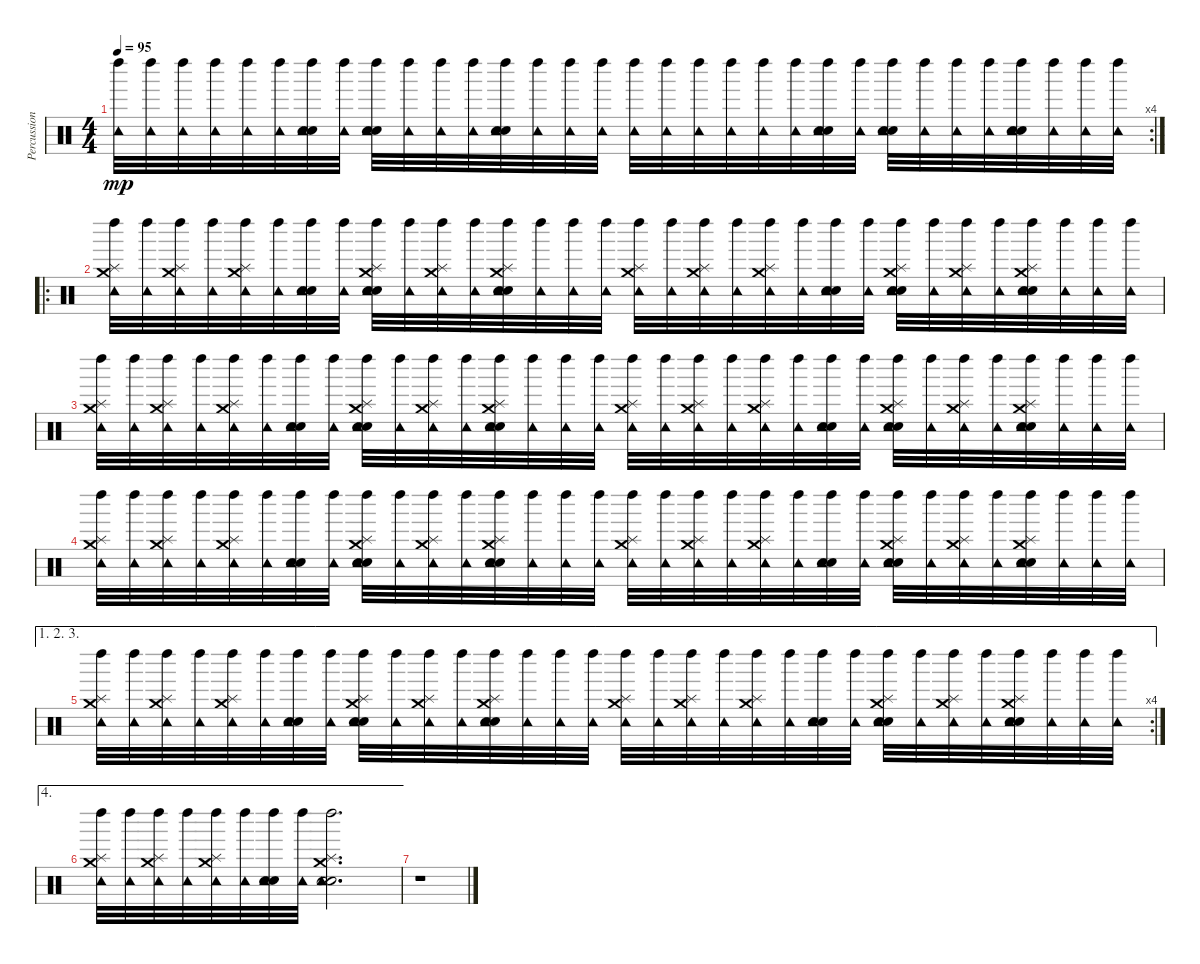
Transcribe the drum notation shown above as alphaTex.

\track ("Percussions" "Percussion") {instrument percussion}
\staff {score}
\articulation defaults
\rc 4
\ts (4 4)
\tempo 95
\clef neutral
\ks c
("Tambourine (hit)" "Left Maraca (hit)").32{dy mp} ("Tambourine (hit)" "Left Maraca (hit)").32 ("Tambourine (hit)" "Left Maraca (hit)").32 ("Tambourine (hit)" "Left Maraca (hit)").32 ("Tambourine (hit)" "Left Maraca (hit)").32 ("Tambourine (hit)" "Left Maraca (hit)").32 ("Snare (hit) 2" "Snare (hit) 2" "Tambourine (hit)" "Left Maraca (hit)").32 ("Tambourine (hit)" "Left Maraca (hit)").32 ("Snare (hit) 2" "Snare (hit) 2" "Tambourine (hit)" "Left Maraca (hit)").32 ("Tambourine (hit)" "Left Maraca (hit)").32 ("Tambourine (hit)" "Left Maraca (hit)").32 ("Tambourine (hit)" "Left Maraca (hit)").32 ("Snare (hit) 2" "Snare (hit) 2" "Tambourine (hit)" "Left Maraca (hit)").32 ("Tambourine (hit)" "Left Maraca (hit)").32 ("Tambourine (hit)" "Left Maraca (hit)").32 ("Tambourine (hit)" "Left Maraca (hit)").32 ("Tambourine (hit)" "Left Maraca (hit)").32 ("Tambourine (hit)" "Left Maraca (hit)").32 ("Tambourine (hit)" "Left Maraca (hit)").32 ("Tambourine (hit)" "Left Maraca (hit)").32 ("Tambourine (hit)" "Left Maraca (hit)").32 ("Tambourine (hit)" "Left Maraca (hit)").32 ("Snare (hit) 2" "Snare (hit) 2" "Tambourine (hit)" "Left Maraca (hit)").32 ("Tambourine (hit)" "Left Maraca (hit)").32 ("Snare (hit) 2" "Snare (hit) 2" "Tambourine (hit)" "Left Maraca (hit)").32 ("Tambourine (hit)" "Left Maraca (hit)").32 ("Tambourine (hit)" "Left Maraca (hit)").32 ("Tambourine (hit)" "Left Maraca (hit)").32 ("Snare (hit) 2" "Snare (hit) 2" "Tambourine (hit)" "Left Maraca (hit)").32 ("Tambourine (hit)" "Left Maraca (hit)").32 ("Tambourine (hit)" "Left Maraca (hit)").32 ("Tambourine (hit)" "Left Maraca (hit)").32 |
\ro
("Splash (hit)" "Crash medium (hit)" "Tambourine (hit)" "Left Maraca (hit)").32 ("Tambourine (hit)" "Left Maraca (hit)").32 ("Splash (hit)" "Crash medium (hit)" "Tambourine (hit)" "Left Maraca (hit)").32 ("Tambourine (hit)" "Left Maraca (hit)").32 ("Splash (hit)" "Crash medium (hit)" "Tambourine (hit)" "Left Maraca (hit)").32 ("Tambourine (hit)" "Left Maraca (hit)").32 ("Snare (hit) 2" "Snare (hit) 2" "Tambourine (hit)" "Left Maraca (hit)").32 ("Tambourine (hit)" "Left Maraca (hit)").32 ("Snare (hit) 2" "Snare (hit) 2" "Splash (hit)" "Crash medium (hit)" "Tambourine (hit)" "Left Maraca (hit)").32 ("Tambourine (hit)" "Left Maraca (hit)").32 ("Splash (hit)" "Crash medium (hit)" "Tambourine (hit)" "Left Maraca (hit)").32 ("Tambourine (hit)" "Left Maraca (hit)").32 ("Snare (hit) 2" "Snare (hit) 2" "Splash (hit)" "Crash medium (hit)" "Tambourine (hit)" "Left Maraca (hit)").32 ("Tambourine (hit)" "Left Maraca (hit)").32 ("Tambourine (hit)" "Left Maraca (hit)").32 ("Tambourine (hit)" "Left Maraca (hit)").32 ("Splash (hit)" "Crash medium (hit)" "Tambourine (hit)" "Left Maraca (hit)").32 ("Tambourine (hit)" "Left Maraca (hit)").32 ("Splash (hit)" "Crash medium (hit)" "Tambourine (hit)" "Left Maraca (hit)").32 ("Tambourine (hit)" "Left Maraca (hit)").32 ("Splash (hit)" "Crash medium (hit)" "Tambourine (hit)" "Left Maraca (hit)").32 ("Tambourine (hit)" "Left Maraca (hit)").32 ("Snare (hit) 2" "Snare (hit) 2" "Tambourine (hit)" "Left Maraca (hit)").32 ("Tambourine (hit)" "Left Maraca (hit)").32 ("Snare (hit) 2" "Snare (hit) 2" "Splash (hit)" "Crash medium (hit)" "Tambourine (hit)" "Left Maraca (hit)").32 ("Tambourine (hit)" "Left Maraca (hit)").32 ("Splash (hit)" "Crash medium (hit)" "Tambourine (hit)" "Left Maraca (hit)").32 ("Tambourine (hit)" "Left Maraca (hit)").32 ("Snare (hit) 2" "Snare (hit) 2" "Splash (hit)" "Crash medium (hit)" "Tambourine (hit)" "Left Maraca (hit)").32 ("Tambourine (hit)" "Left Maraca (hit)").32 ("Tambourine (hit)" "Left Maraca (hit)").32 ("Tambourine (hit)" "Left Maraca (hit)").32 |
("Splash (hit)" "Crash medium (hit)" "Tambourine (hit)" "Left Maraca (hit)").32 ("Tambourine (hit)" "Left Maraca (hit)").32 ("Splash (hit)" "Crash medium (hit)" "Tambourine (hit)" "Left Maraca (hit)").32 ("Tambourine (hit)" "Left Maraca (hit)").32 ("Splash (hit)" "Crash medium (hit)" "Tambourine (hit)" "Left Maraca (hit)").32 ("Tambourine (hit)" "Left Maraca (hit)").32 ("Snare (hit) 2" "Snare (hit) 2" "Tambourine (hit)" "Left Maraca (hit)").32 ("Tambourine (hit)" "Left Maraca (hit)").32 ("Snare (hit) 2" "Snare (hit) 2" "Splash (hit)" "Crash medium (hit)" "Tambourine (hit)" "Left Maraca (hit)").32 ("Tambourine (hit)" "Left Maraca (hit)").32 ("Splash (hit)" "Crash medium (hit)" "Tambourine (hit)" "Left Maraca (hit)").32 ("Tambourine (hit)" "Left Maraca (hit)").32 ("Snare (hit) 2" "Snare (hit) 2" "Splash (hit)" "Crash medium (hit)" "Tambourine (hit)" "Left Maraca (hit)").32 ("Tambourine (hit)" "Left Maraca (hit)").32 ("Tambourine (hit)" "Left Maraca (hit)").32 ("Tambourine (hit)" "Left Maraca (hit)").32 ("Splash (hit)" "Crash medium (hit)" "Tambourine (hit)" "Left Maraca (hit)").32 ("Tambourine (hit)" "Left Maraca (hit)").32 ("Splash (hit)" "Crash medium (hit)" "Tambourine (hit)" "Left Maraca (hit)").32 ("Tambourine (hit)" "Left Maraca (hit)").32 ("Splash (hit)" "Crash medium (hit)" "Tambourine (hit)" "Left Maraca (hit)").32 ("Tambourine (hit)" "Left Maraca (hit)").32 ("Snare (hit) 2" "Snare (hit) 2" "Tambourine (hit)" "Left Maraca (hit)").32 ("Tambourine (hit)" "Left Maraca (hit)").32 ("Snare (hit) 2" "Snare (hit) 2" "Splash (hit)" "Crash medium (hit)" "Tambourine (hit)" "Left Maraca (hit)").32 ("Tambourine (hit)" "Left Maraca (hit)").32 ("Splash (hit)" "Crash medium (hit)" "Tambourine (hit)" "Left Maraca (hit)").32 ("Tambourine (hit)" "Left Maraca (hit)").32 ("Snare (hit) 2" "Snare (hit) 2" "Splash (hit)" "Crash medium (hit)" "Tambourine (hit)" "Left Maraca (hit)").32 ("Tambourine (hit)" "Left Maraca (hit)").32 ("Tambourine (hit)" "Left Maraca (hit)").32 ("Tambourine (hit)" "Left Maraca (hit)").32 |
("Splash (hit)" "Crash medium (hit)" "Tambourine (hit)" "Left Maraca (hit)").32 ("Tambourine (hit)" "Left Maraca (hit)").32 ("Splash (hit)" "Crash medium (hit)" "Tambourine (hit)" "Left Maraca (hit)").32 ("Tambourine (hit)" "Left Maraca (hit)").32 ("Splash (hit)" "Crash medium (hit)" "Tambourine (hit)" "Left Maraca (hit)").32 ("Tambourine (hit)" "Left Maraca (hit)").32 ("Snare (hit) 2" "Snare (hit) 2" "Tambourine (hit)" "Left Maraca (hit)").32 ("Tambourine (hit)" "Left Maraca (hit)").32 ("Snare (hit) 2" "Snare (hit) 2" "Splash (hit)" "Crash medium (hit)" "Tambourine (hit)" "Left Maraca (hit)").32 ("Tambourine (hit)" "Left Maraca (hit)").32 ("Splash (hit)" "Crash medium (hit)" "Tambourine (hit)" "Left Maraca (hit)").32 ("Tambourine (hit)" "Left Maraca (hit)").32 ("Snare (hit) 2" "Snare (hit) 2" "Splash (hit)" "Crash medium (hit)" "Tambourine (hit)" "Left Maraca (hit)").32 ("Tambourine (hit)" "Left Maraca (hit)").32 ("Tambourine (hit)" "Left Maraca (hit)").32 ("Tambourine (hit)" "Left Maraca (hit)").32 ("Splash (hit)" "Crash medium (hit)" "Tambourine (hit)" "Left Maraca (hit)").32 ("Tambourine (hit)" "Left Maraca (hit)").32 ("Splash (hit)" "Crash medium (hit)" "Tambourine (hit)" "Left Maraca (hit)").32 ("Tambourine (hit)" "Left Maraca (hit)").32 ("Splash (hit)" "Crash medium (hit)" "Tambourine (hit)" "Left Maraca (hit)").32 ("Tambourine (hit)" "Left Maraca (hit)").32 ("Snare (hit) 2" "Snare (hit) 2" "Tambourine (hit)" "Left Maraca (hit)").32 ("Tambourine (hit)" "Left Maraca (hit)").32 ("Snare (hit) 2" "Snare (hit) 2" "Splash (hit)" "Crash medium (hit)" "Tambourine (hit)" "Left Maraca (hit)").32 ("Tambourine (hit)" "Left Maraca (hit)").32 ("Splash (hit)" "Crash medium (hit)" "Tambourine (hit)" "Left Maraca (hit)").32 ("Tambourine (hit)" "Left Maraca (hit)").32 ("Snare (hit) 2" "Snare (hit) 2" "Splash (hit)" "Crash medium (hit)" "Tambourine (hit)" "Left Maraca (hit)").32 ("Tambourine (hit)" "Left Maraca (hit)").32 ("Tambourine (hit)" "Left Maraca (hit)").32 ("Tambourine (hit)" "Left Maraca (hit)").32 |
\ae (1 2 3)
\rc 4
("Splash (hit)" "Crash medium (hit)" "Tambourine (hit)" "Left Maraca (hit)").32 ("Tambourine (hit)" "Left Maraca (hit)").32 ("Splash (hit)" "Crash medium (hit)" "Tambourine (hit)" "Left Maraca (hit)").32 ("Tambourine (hit)" "Left Maraca (hit)").32 ("Splash (hit)" "Crash medium (hit)" "Tambourine (hit)" "Left Maraca (hit)").32 ("Tambourine (hit)" "Left Maraca (hit)").32 ("Snare (hit) 2" "Snare (hit) 2" "Tambourine (hit)" "Left Maraca (hit)").32 ("Tambourine (hit)" "Left Maraca (hit)").32 ("Snare (hit) 2" "Snare (hit) 2" "Splash (hit)" "Crash medium (hit)" "Tambourine (hit)" "Left Maraca (hit)").32 ("Tambourine (hit)" "Left Maraca (hit)").32 ("Splash (hit)" "Crash medium (hit)" "Tambourine (hit)" "Left Maraca (hit)").32 ("Tambourine (hit)" "Left Maraca (hit)").32 ("Snare (hit) 2" "Snare (hit) 2" "Splash (hit)" "Crash medium (hit)" "Tambourine (hit)" "Left Maraca (hit)").32 ("Tambourine (hit)" "Left Maraca (hit)").32 ("Tambourine (hit)" "Left Maraca (hit)").32 ("Tambourine (hit)" "Left Maraca (hit)").32 ("Splash (hit)" "Crash medium (hit)" "Tambourine (hit)" "Left Maraca (hit)").32 ("Tambourine (hit)" "Left Maraca (hit)").32 ("Splash (hit)" "Crash medium (hit)" "Tambourine (hit)" "Left Maraca (hit)").32 ("Tambourine (hit)" "Left Maraca (hit)").32 ("Splash (hit)" "Crash medium (hit)" "Tambourine (hit)" "Left Maraca (hit)").32 ("Tambourine (hit)" "Left Maraca (hit)").32 ("Snare (hit) 2" "Snare (hit) 2" "Tambourine (hit)" "Left Maraca (hit)").32 ("Tambourine (hit)" "Left Maraca (hit)").32 ("Snare (hit) 2" "Snare (hit) 2" "Splash (hit)" "Crash medium (hit)" "Tambourine (hit)" "Left Maraca (hit)").32 ("Tambourine (hit)" "Left Maraca (hit)").32 ("Splash (hit)" "Crash medium (hit)" "Tambourine (hit)" "Left Maraca (hit)").32 ("Tambourine (hit)" "Left Maraca (hit)").32 ("Snare (hit) 2" "Snare (hit) 2" "Splash (hit)" "Crash medium (hit)" "Tambourine (hit)" "Left Maraca (hit)").32 ("Tambourine (hit)" "Left Maraca (hit)").32 ("Tambourine (hit)" "Left Maraca (hit)").32 ("Tambourine (hit)" "Left Maraca (hit)").32 |
\ae 4
("Splash (hit)" "Crash medium (hit)" "Tambourine (hit)" "Left Maraca (hit)").32 ("Tambourine (hit)" "Left Maraca (hit)").32 ("Splash (hit)" "Crash medium (hit)" "Tambourine (hit)" "Left Maraca (hit)").32 ("Tambourine (hit)" "Left Maraca (hit)").32 ("Splash (hit)" "Crash medium (hit)" "Tambourine (hit)" "Left Maraca (hit)").32 ("Tambourine (hit)" "Left Maraca (hit)").32 ("Snare (hit) 2" "Snare (hit) 2" "Tambourine (hit)" "Left Maraca (hit)").32 ("Tambourine (hit)" "Left Maraca (hit)").32 ("Snare (hit) 2" "Snare (hit) 2" "Splash (hit)" "Crash medium (hit)" "Tambourine (hit)" "Left Maraca (hit)").2{d} |
r.1
